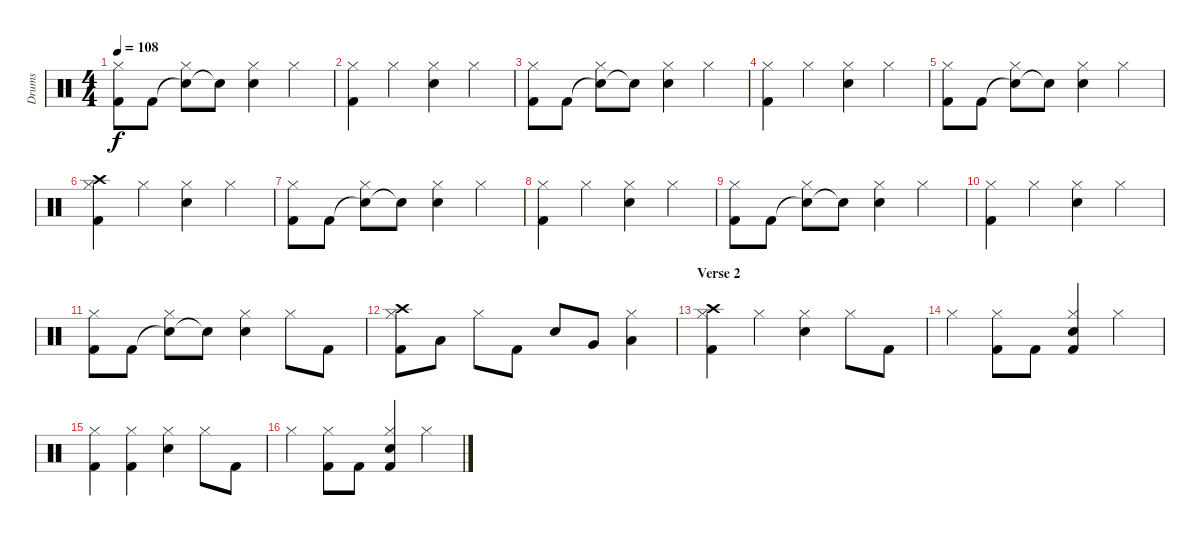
\track ("Drums" "Drums") {instrument percussion}
\staff {score}
\articulation defaults
\ts (4 4)
\tempo 108
\clef neutral
\ks c
("Kick (hit) 2" "Hi-Hat (closed)").8{dy f} "Kick (hit) 2".8 ("Snare (hit)"{t} "Hi-Hat (closed)").8 "Snare (hit)"{t}.8 ("Electric Snare (hit)" "Hi-Hat (closed)").4 "Hi-Hat (closed)".4 |
("Kick (hit) 2" "Hi-Hat (closed)").4 "Hi-Hat (closed)".4 ("Electric Snare (hit)" "Hi-Hat (closed)").4 "Hi-Hat (closed)".4 |
("Kick (hit) 2" "Hi-Hat (closed)").8 "Kick (hit) 2".8 ("Snare (hit)"{t} "Hi-Hat (closed)").8 "Snare (hit)"{t}.8 ("Electric Snare (hit)" "Hi-Hat (closed)").4 "Hi-Hat (closed)".4 |
("Kick (hit) 2" "Hi-Hat (closed)").4 "Hi-Hat (closed)".4 ("Electric Snare (hit)" "Hi-Hat (closed)").4 "Hi-Hat (closed)".4 |
("Kick (hit) 2" "Hi-Hat (closed)").8 "Kick (hit) 2".8 ("Snare (hit)"{t} "Hi-Hat (closed)").8 "Snare (hit)"{t}.8 ("Electric Snare (hit)" "Hi-Hat (closed)").4 "Hi-Hat (closed)".4 |
("Kick (hit) 2" "Hi-Hat (closed)" "Crash high (hit)").4 "Hi-Hat (closed)".4 ("Electric Snare (hit)" "Hi-Hat (closed)").4 "Hi-Hat (closed)".4 |
("Kick (hit) 2" "Hi-Hat (closed)").8 "Kick (hit) 2".8 ("Snare (hit)"{t} "Hi-Hat (closed)").8 "Snare (hit)"{t}.8 ("Electric Snare (hit)" "Hi-Hat (closed)").4 "Hi-Hat (closed)".4 |
("Kick (hit) 2" "Hi-Hat (closed)").4 "Hi-Hat (closed)".4 ("Electric Snare (hit)" "Hi-Hat (closed)").4 "Hi-Hat (closed)".4 |
("Kick (hit) 2" "Hi-Hat (closed)").8 "Kick (hit) 2".8 ("Snare (hit)"{t} "Hi-Hat (closed)").8 "Snare (hit)"{t}.8 ("Electric Snare (hit)" "Hi-Hat (closed)").4 "Hi-Hat (closed)".4 |
("Kick (hit) 2" "Hi-Hat (closed)").4 "Hi-Hat (closed)".4 ("Electric Snare (hit)" "Hi-Hat (closed)").4 "Hi-Hat (closed)".4 |
("Kick (hit) 2" "Hi-Hat (closed)").8 "Kick (hit) 2".8 ("Snare (hit)"{t} "Hi-Hat (closed)").8 "Snare (hit)"{t}.8 ("Electric Snare (hit)" "Hi-Hat (closed)").4 "Hi-Hat (closed)".8 "Kick (hit) 2".8 |
("Kick (hit) 2" "Hi-Hat (closed)" "Crash high (hit)").8 "Low Tom (hit)".8 "Hi-Hat (closed)".8 "Kick (hit) 2".8 "Electric Snare (hit)".8 "Very Low Tom (hit)".8 ("Hi-Hat (closed)" "Low Floor Tom (hit)").4 |
\section ("" "Verse 2")
("Kick (hit) 2" "Hi-Hat (closed)" "Crash high (hit)").4 "Hi-Hat (closed)".4 ("Electric Snare (hit)" "Hi-Hat (closed)").4 "Hi-Hat (closed)".8 "Kick (hit) 2".8 |
"Hi-Hat (closed)".4 ("Kick (hit) 2" "Hi-Hat (closed)").8 "Kick (hit) 2".8 ("Kick (hit) 2" "Electric Snare (hit)" "Hi-Hat (closed)").4 "Hi-Hat (closed)".4 |
("Kick (hit) 2" "Hi-Hat (closed)").4 ("Kick (hit) 2" "Hi-Hat (closed)").4 ("Electric Snare (hit)" "Hi-Hat (closed)").4 "Hi-Hat (closed)".8 "Kick (hit) 2".8 |
"Hi-Hat (closed)".4 ("Kick (hit) 2" "Hi-Hat (closed)").8 "Kick (hit) 2".8 ("Kick (hit) 2" "Electric Snare (hit)" "Hi-Hat (closed)").4 "Hi-Hat (closed)".4
